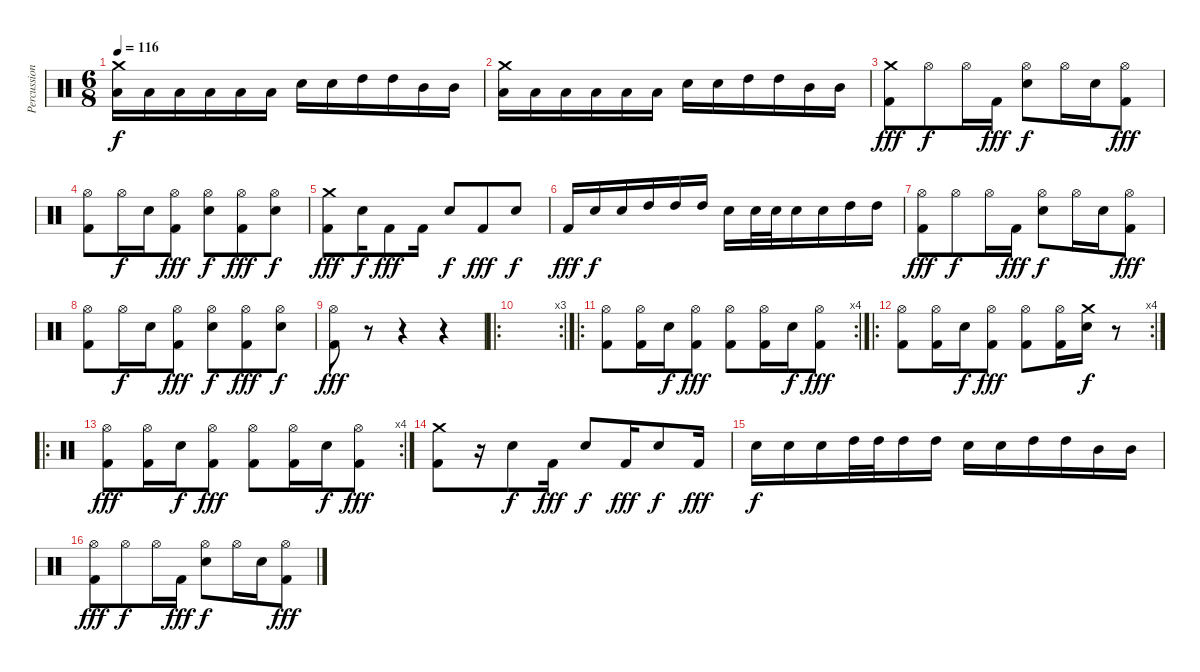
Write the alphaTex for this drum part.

\track ("Percussions" "Percussion") {instrument percussion}
\staff {score}
\articulation defaults
\ts (6 8)
\tempo 116
\clef neutral
\ks c
("Crash medium (hit)" "Low Tom (hit)").16{dy f} "Low Tom (hit)".16 "Low Tom (hit)".16 "Low Tom (hit)".16 "Low Tom (hit)".16 "Low Tom (hit)".16 "Snare (hit) 2".16 "Snare (hit) 2".16 "High Tom (hit)".16 "High Tom (hit)".16 "Mid Tom (hit)".16 "Mid Tom (hit)".16 |
("Crash medium (hit)" "Low Tom (hit)").16 "Low Tom (hit)".16 "Low Tom (hit)".16 "Low Tom (hit)".16 "Low Tom (hit)".16 "Low Tom (hit)".16 "Snare (hit) 2".16 "Snare (hit) 2".16 "High Tom (hit)".16 "High Tom (hit)".16 "Mid Tom (hit)".16 "Mid Tom (hit)".16 |
("Crash medium (hit)" "Kick (hit) 2").8{dy fff} "Hi-Hat (open)".8{dy f} "Hi-Hat (open)".16 "Kick (hit) 2".16{dy fff} ("Hi-Hat (open)" "Snare (hit) 2").8{dy f} "Hi-Hat (open)".16 "Snare (hit) 2".16 ("Hi-Hat (open)" "Kick (hit) 2").8{dy fff} |
("Hi-Hat (open)" "Kick (hit) 2").8 "Hi-Hat (open)".16{dy f} "Snare (hit) 2".16 ("Hi-Hat (open)" "Kick (hit) 2").8{dy fff} ("Hi-Hat (open)" "Snare (hit) 2").8{dy f} ("Hi-Hat (open)" "Kick (hit) 2").8{dy fff} ("Hi-Hat (open)" "Snare (hit) 2").8{dy f} |
("Crash medium (hit)" "Kick (hit) 2").8{dy fff} "Snare (hit) 2".16{dy f} "Kick (hit) 2".8{dy fff} "Kick (hit) 2".16 "Snare (hit) 2".8{dy f} "Kick (hit) 2".8{dy fff} "Snare (hit) 2".8{dy f} |
"Kick (hit) 2".16{dy fff} "Snare (hit) 2".16{dy f} "Snare (hit) 2".16 "High Tom (hit)".16 "High Tom (hit)".16 "High Tom (hit)".16 "Snare (hit) 2".16 "Snare (hit) 2".32 "Snare (hit) 2".32 "Snare (hit) 2".16 "Snare (hit) 2".16 "High Tom (hit)".16 "High Tom (hit)".16 |
("Hi-Hat (open)" "Kick (hit) 2").8{dy fff} "Hi-Hat (open)".8{dy f} "Hi-Hat (open)".16 "Kick (hit) 2".16{dy fff} ("Hi-Hat (open)" "Snare (hit) 2").8{dy f} "Hi-Hat (open)".16 "Snare (hit) 2".16 ("Hi-Hat (open)" "Kick (hit) 2").8{dy fff} |
("Hi-Hat (open)" "Kick (hit) 2").8 "Hi-Hat (open)".16{dy f} "Snare (hit) 2".16 ("Hi-Hat (open)" "Kick (hit) 2").8{dy fff} ("Hi-Hat (open)" "Snare (hit) 2").8{dy f} ("Hi-Hat (open)" "Kick (hit) 2").8{dy fff} ("Hi-Hat (open)" "Snare (hit) 2").8{dy f} |
("Hi-Hat (open)" "Kick (hit) 2").8{dy fff} r.8 r.4 r.4 |
\ro
\rc 3
|
\ro
\rc 4
("Hi-Hat (open)" "Kick (hit) 2").8 ("Hi-Hat (open)" "Kick (hit) 2").16 "Snare (hit) 2".16{dy f} ("Hi-Hat (open)" "Kick (hit) 2").8{dy fff} ("Hi-Hat (open)" "Kick (hit) 2").8 ("Hi-Hat (open)" "Kick (hit) 2").16 "Snare (hit) 2".16{dy f} ("Hi-Hat (open)" "Kick (hit) 2").8{dy fff} |
\ro
\rc 4
("Hi-Hat (open)" "Kick (hit) 2").8 ("Hi-Hat (open)" "Kick (hit) 2").16 "Snare (hit) 2".16{dy f} ("Hi-Hat (open)" "Kick (hit) 2").8{dy fff} ("Hi-Hat (open)" "Kick (hit) 2").8 ("Hi-Hat (open)" "Kick (hit) 2").16 ("Crash medium (hit)" "Snare (hit) 2").16{dy f} r.8 |
\ro
\rc 4
("Hi-Hat (open)" "Kick (hit) 2").8{dy fff} ("Hi-Hat (open)" "Kick (hit) 2").16 "Snare (hit) 2".16{dy f} ("Hi-Hat (open)" "Kick (hit) 2").8{dy fff} ("Hi-Hat (open)" "Kick (hit) 2").8 ("Hi-Hat (open)" "Kick (hit) 2").16 "Snare (hit) 2".16{dy f} ("Hi-Hat (open)" "Kick (hit) 2").8{dy fff} |
("Crash medium (hit)" "Kick (hit) 2").8 r.16 "Snare (hit) 2".8{dy f} "Kick (hit) 2".16{dy fff} "Snare (hit) 2".8{dy f} "Kick (hit) 2".16{dy fff} "Snare (hit) 2".8{dy f} "Kick (hit) 2".16{dy fff} |
"Snare (hit) 2".16{dy f} "Snare (hit) 2".16 "Snare (hit) 2".16 "High Tom (hit)".32 "High Tom (hit)".32 "High Tom (hit)".16 "High Tom (hit)".16 "Snare (hit) 2".16 "Snare (hit) 2".16 "High Tom (hit)".16 "High Tom (hit)".16 "Mid Tom (hit)".16 "Mid Tom (hit)".16 |
("Hi-Hat (open)" "Kick (hit) 2").8{dy fff} "Hi-Hat (open)".8{dy f} "Hi-Hat (open)".16 "Kick (hit) 2".16{dy fff} ("Hi-Hat (open)" "Snare (hit) 2").8{dy f} "Hi-Hat (open)".16 "Snare (hit) 2".16 ("Hi-Hat (open)" "Kick (hit) 2").8{dy fff}
